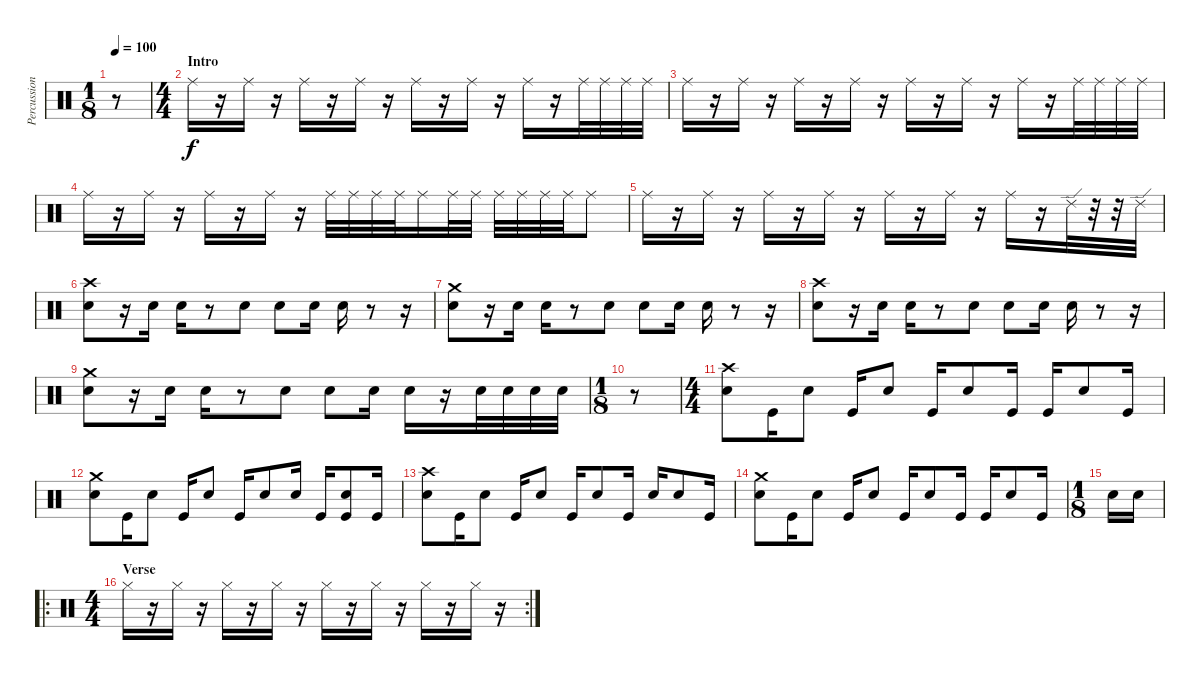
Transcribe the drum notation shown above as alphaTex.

\track ("Percussion" "Percussion") {instrument percussion}
\staff {score}
\articulation defaults
\ts (1 8)
\tempo 100
\clef neutral
\ks c
r.8{dy f} |
\ts (4 4)
\section ("" "Intro")
"Ride (middle)".16 r.16 "Ride (middle)".16 r.16 "Ride (middle)".16 r.16 "Ride (middle)".16 r.16 "Ride (middle)".16 r.16 "Ride (middle)".16 r.16 "Ride (middle)".16 r.16 "Ride (middle)".32 "Ride (middle)".32 "Ride (middle)".32 "Ride (middle)".32 |
"Ride (middle)".16 r.16 "Ride (middle)".16 r.16 "Ride (middle)".16 r.16 "Ride (middle)".16 r.16 "Ride (middle)".16 r.16 "Ride (middle)".16 r.16 "Ride (middle)".16 r.16 "Ride (middle)".32 "Ride (middle)".32 "Ride (middle)".32 "Ride (middle)".32 |
"Ride (middle)".16 r.16 "Ride (middle)".16 r.16 "Ride (middle)".16 r.16 "Ride (middle)".16 r.16 "Ride (middle)".32 "Ride (middle)".32 "Ride (middle)".32 "Ride (middle)".32 "Ride (middle)".16 "Ride (middle)".32 "Ride (middle)".32 "Ride (middle)".32 "Ride (middle)".32 "Ride (middle)".32 "Ride (middle)".32 "Ride (middle)".8 |
"Ride (middle)".16 r.16 "Ride (middle)".16 r.16 "Ride (middle)".16 r.16 "Ride (middle)".16 r.16 "Ride (middle)".16 r.16 "Ride (middle)".16 r.16 "Ride (middle)".16 r.16 "Ride (edge) 2".32 r.32 r.32 "Ride (edge) 2".32 |
("Crash high (hit)" "Electric Snare (hit)").8 r.16 "Electric Snare (hit)".16 "Electric Snare (hit)".16 r.8 "Electric Snare (hit)".8 "Electric Snare (hit)".8 "Electric Snare (hit)".16 "Electric Snare (hit)".16 r.8 r.16 |
("Crash medium (hit)" "Electric Snare (hit)").8 r.16 "Electric Snare (hit)".16 "Electric Snare (hit)".16 r.8 "Electric Snare (hit)".8 "Electric Snare (hit)".8 "Electric Snare (hit)".16 "Electric Snare (hit)".16 r.8 r.16 |
("Crash high (hit)" "Electric Snare (hit)").8 r.16 "Electric Snare (hit)".16 "Electric Snare (hit)".16 r.8 "Electric Snare (hit)".8 "Electric Snare (hit)".8 "Electric Snare (hit)".16 "Electric Snare (hit)".16 r.8 r.16 |
("Crash medium (hit)" "Electric Snare (hit)").8 r.16 "Electric Snare (hit)".16 "Electric Snare (hit)".16 r.8 "Electric Snare (hit)".8 "Electric Snare (hit)".8 "Electric Snare (hit)".16 "Electric Snare (hit)".16 r.16 "Electric Snare (hit)".32 "Electric Snare (hit)".32 "Electric Snare (hit)".32 "Electric Snare (hit)".32 |
\ts (1 8)
r.8 |
\ts (4 4)
("Crash high (hit)" "Electric Snare (hit)").8 "Kick (hit)".16 "Electric Snare (hit)".8 "Kick (hit)".16 "Electric Snare (hit)".8 "Kick (hit)".16 "Electric Snare (hit)".8 "Kick (hit)".16 "Kick (hit)".16 "Electric Snare (hit)".8 "Kick (hit)".16 |
("Crash medium (hit)" "Electric Snare (hit)").8 "Kick (hit)".16 "Electric Snare (hit)".8 "Kick (hit)".16 "Electric Snare (hit)".8 "Kick (hit)".16 "Electric Snare (hit)".8 "Electric Snare (hit)".16 "Kick (hit)".16 ("Electric Snare (hit)" "Kick (hit)").8 "Kick (hit)".16 |
("Crash high (hit)" "Electric Snare (hit)").8 "Kick (hit)".16 "Electric Snare (hit)".8 "Kick (hit)".16 "Electric Snare (hit)".8 "Kick (hit)".16 "Electric Snare (hit)".8 "Kick (hit)".16 "Electric Snare (hit)".16 "Electric Snare (hit)".8 "Kick (hit)".16 |
("Crash medium (hit)" "Electric Snare (hit)").8 "Kick (hit)".16 "Electric Snare (hit)".8 "Kick (hit)".16 "Electric Snare (hit)".8 "Kick (hit)".16 "Electric Snare (hit)".8 "Kick (hit)".16 "Kick (hit)".16 "Electric Snare (hit)".8 "Kick (hit)".16 |
\ts (1 8)
"Electric Snare (hit)".16 "Electric Snare (hit)".16 |
\ro
\rc 2
\ts (4 4)
\section ("" "Verse")
"Hi-Hat (closed)".16 r.16 "Hi-Hat (closed)".16 r.16 "Hi-Hat (closed)".16 r.16 "Hi-Hat (closed)".16 r.16 "Hi-Hat (closed)".16 r.16 "Hi-Hat (closed)".16 r.16 "Hi-Hat (closed)".16 r.16 "Hi-Hat (closed)".16 r.16
